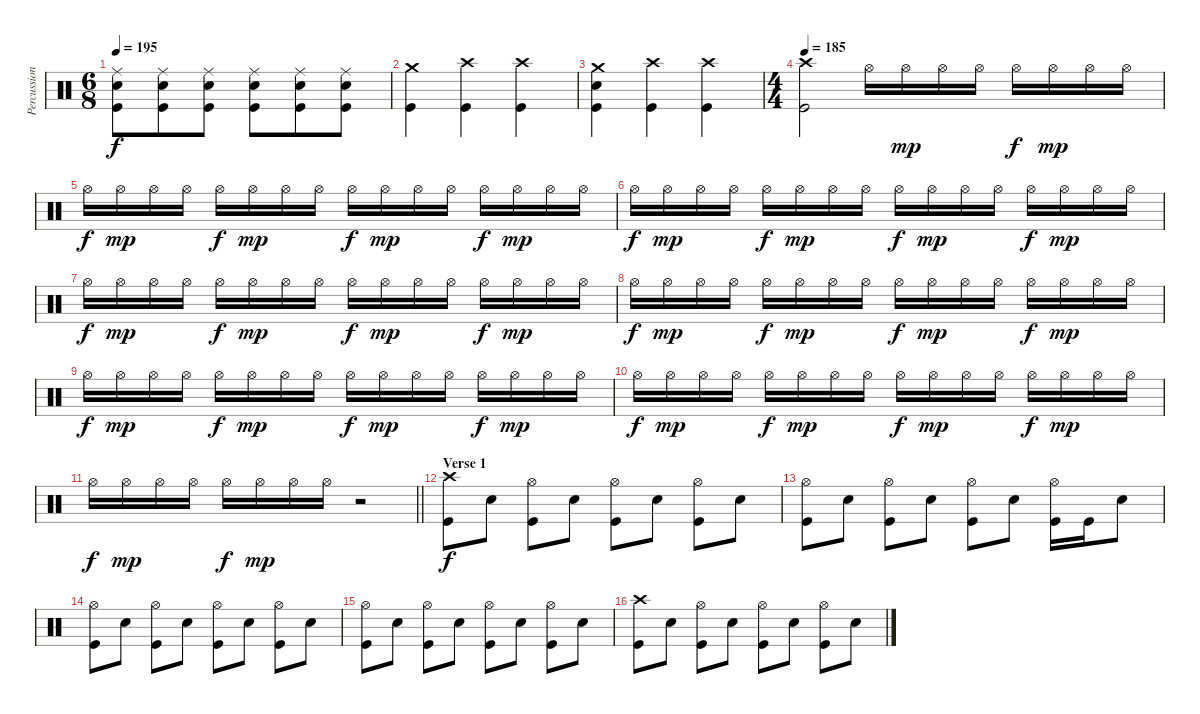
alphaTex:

\track ("Percussion" "Percussion") {instrument percussion}
\staff {score}
\articulation defaults
\ts (6 8)
\tempo 195
\clef neutral
\ks c
("Ride (middle)" "Snare (hit) 2" "Kick (hit)").8{dy f} ("Ride (middle)" "Snare (hit) 2" "Kick (hit)").8 ("Ride (middle)" "Snare (hit) 2" "Kick (hit)").8 ("Ride (middle)" "Snare (hit) 2" "Kick (hit)").8 ("Ride (middle)" "Snare (hit) 2" "Kick (hit)").8 ("Ride (middle)" "Snare (hit) 2" "Kick (hit)").8 |
("Kick (hit)" "Crash medium (hit)").4 ("Crash high (hit)" "Kick (hit)").4 ("Kick (hit)" "Crash high (hit)").4 |
("Snare (hit) 2" "Crash medium (hit)" "Kick (hit)").4 ("Kick (hit)" "Crash high (hit)").4 ("Kick (hit)" "Crash high (hit)").4 |
\ts (4 4)
\tempo 185
("Crash high (hit)" "Kick (hit)").2 "Hi-Hat (open)".16 "Hi-Hat (open)".16{dy mp} "Hi-Hat (open)".16 "Hi-Hat (open)".16 "Hi-Hat (open)".16{dy f} "Hi-Hat (open)".16{dy mp} "Hi-Hat (open)".16 "Hi-Hat (open)".16 |
"Hi-Hat (open)".16{dy f} "Hi-Hat (open)".16{dy mp} "Hi-Hat (open)".16 "Hi-Hat (open)".16 "Hi-Hat (open)".16{dy f} "Hi-Hat (open)".16{dy mp} "Hi-Hat (open)".16 "Hi-Hat (open)".16 "Hi-Hat (open)".16{dy f} "Hi-Hat (open)".16{dy mp} "Hi-Hat (open)".16 "Hi-Hat (open)".16 "Hi-Hat (open)".16{dy f} "Hi-Hat (open)".16{dy mp} "Hi-Hat (open)".16 "Hi-Hat (open)".16 |
"Hi-Hat (open)".16{dy f} "Hi-Hat (open)".16{dy mp} "Hi-Hat (open)".16 "Hi-Hat (open)".16 "Hi-Hat (open)".16{dy f} "Hi-Hat (open)".16{dy mp} "Hi-Hat (open)".16 "Hi-Hat (open)".16 "Hi-Hat (open)".16{dy f} "Hi-Hat (open)".16{dy mp} "Hi-Hat (open)".16 "Hi-Hat (open)".16 "Hi-Hat (open)".16{dy f} "Hi-Hat (open)".16{dy mp} "Hi-Hat (open)".16 "Hi-Hat (open)".16 |
"Hi-Hat (open)".16{dy f} "Hi-Hat (open)".16{dy mp} "Hi-Hat (open)".16 "Hi-Hat (open)".16 "Hi-Hat (open)".16{dy f} "Hi-Hat (open)".16{dy mp} "Hi-Hat (open)".16 "Hi-Hat (open)".16 "Hi-Hat (open)".16{dy f} "Hi-Hat (open)".16{dy mp} "Hi-Hat (open)".16 "Hi-Hat (open)".16 "Hi-Hat (open)".16{dy f} "Hi-Hat (open)".16{dy mp} "Hi-Hat (open)".16 "Hi-Hat (open)".16 |
"Hi-Hat (open)".16{dy f} "Hi-Hat (open)".16{dy mp} "Hi-Hat (open)".16 "Hi-Hat (open)".16 "Hi-Hat (open)".16{dy f} "Hi-Hat (open)".16{dy mp} "Hi-Hat (open)".16 "Hi-Hat (open)".16 "Hi-Hat (open)".16{dy f} "Hi-Hat (open)".16{dy mp} "Hi-Hat (open)".16 "Hi-Hat (open)".16 "Hi-Hat (open)".16{dy f} "Hi-Hat (open)".16{dy mp} "Hi-Hat (open)".16 "Hi-Hat (open)".16 |
"Hi-Hat (open)".16{dy f} "Hi-Hat (open)".16{dy mp} "Hi-Hat (open)".16 "Hi-Hat (open)".16 "Hi-Hat (open)".16{dy f} "Hi-Hat (open)".16{dy mp} "Hi-Hat (open)".16 "Hi-Hat (open)".16 "Hi-Hat (open)".16{dy f} "Hi-Hat (open)".16{dy mp} "Hi-Hat (open)".16 "Hi-Hat (open)".16 "Hi-Hat (open)".16{dy f} "Hi-Hat (open)".16{dy mp} "Hi-Hat (open)".16 "Hi-Hat (open)".16 |
"Hi-Hat (open)".16{dy f} "Hi-Hat (open)".16{dy mp} "Hi-Hat (open)".16 "Hi-Hat (open)".16 "Hi-Hat (open)".16{dy f} "Hi-Hat (open)".16{dy mp} "Hi-Hat (open)".16 "Hi-Hat (open)".16 "Hi-Hat (open)".16{dy f} "Hi-Hat (open)".16{dy mp} "Hi-Hat (open)".16 "Hi-Hat (open)".16 "Hi-Hat (open)".16{dy f} "Hi-Hat (open)".16{dy mp} "Hi-Hat (open)".16 "Hi-Hat (open)".16 |
\barLineRight lightlight "Hi-Hat (open)".16{dy f} "Hi-Hat (open)".16{dy mp} "Hi-Hat (open)".16 "Hi-Hat (open)".16 "Hi-Hat (open)".16{dy f} "Hi-Hat (open)".16{dy mp} "Hi-Hat (open)".16 "Hi-Hat (open)".16
r.2 |
\section ("" "Verse 1")
("Crash high (hit)" "Kick (hit)").8{dy f} "Snare (hit) 2".8 ("Hi-Hat (open)" "Kick (hit)").8 "Snare (hit) 2".8 ("Hi-Hat (open)" "Kick (hit)").8 "Snare (hit) 2".8 ("Hi-Hat (open)" "Kick (hit)").8 "Snare (hit) 2".8 |
("Kick (hit)" "Hi-Hat (open)").8 "Snare (hit) 2".8 ("Kick (hit)" "Hi-Hat (open)").8 "Snare (hit) 2".8 ("Hi-Hat (open)" "Kick (hit)").8 "Snare (hit) 2".8 ("Hi-Hat (open)" "Kick (hit)").16 "Kick (hit)".16 "Snare (hit) 2".8 |
("Hi-Hat (open)" "Kick (hit)").8 "Snare (hit) 2".8 ("Hi-Hat (open)" "Kick (hit)").8 "Snare (hit) 2".8 ("Hi-Hat (open)" "Kick (hit)").8 "Snare (hit) 2".8 ("Hi-Hat (open)" "Kick (hit)").8 "Snare (hit) 2".8 |
("Hi-Hat (open)" "Kick (hit)").8 "Snare (hit) 2".8 ("Hi-Hat (open)" "Kick (hit)").8 "Snare (hit) 2".8 ("Hi-Hat (open)" "Kick (hit)").8 "Snare (hit) 2".8 ("Hi-Hat (open)" "Kick (hit)").8 "Snare (hit) 2".8 |
("Crash high (hit)" "Kick (hit)").8 "Snare (hit) 2".8 ("Hi-Hat (open)" "Kick (hit)").8 "Snare (hit) 2".8 ("Hi-Hat (open)" "Kick (hit)").8 "Snare (hit) 2".8 ("Hi-Hat (open)" "Kick (hit)").8 "Snare (hit) 2".8
